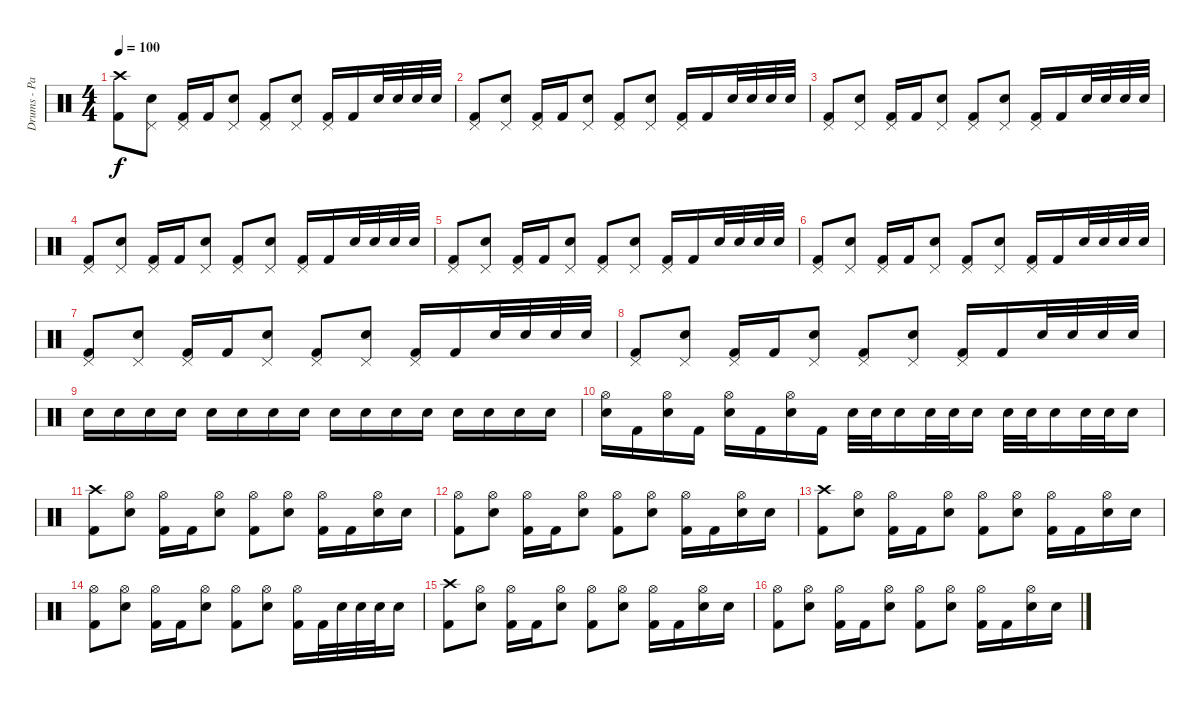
\track ("Drums - Pat Thetic" "Drums - Pa") {instrument percussion}
\staff {score}
\articulation defaults
\ts (4 4)
\tempo 100
\clef neutral
\ks c
("Crash high (hit)" "Kick (hit) 2").8{dy f} ("Pedal Hi-Hat (hit)" "Electric Snare (hit)").8 ("Pedal Hi-Hat (hit)" "Kick (hit) 2").16 "Kick (hit) 2".16 ("Pedal Hi-Hat (hit)" "Electric Snare (hit)").8 ("Pedal Hi-Hat (hit)" "Kick (hit) 2").8 ("Pedal Hi-Hat (hit)" "Electric Snare (hit)").8 ("Pedal Hi-Hat (hit)" "Kick (hit) 2").16 "Kick (hit) 2".16 "Electric Snare (hit)".32 "Electric Snare (hit)".32 "Electric Snare (hit)".32 "Electric Snare (hit)".32 |
("Pedal Hi-Hat (hit)" "Kick (hit) 2").8 ("Pedal Hi-Hat (hit)" "Electric Snare (hit)").8 ("Pedal Hi-Hat (hit)" "Kick (hit) 2").16 "Kick (hit) 2".16 ("Pedal Hi-Hat (hit)" "Electric Snare (hit)").8 ("Pedal Hi-Hat (hit)" "Kick (hit) 2").8 ("Pedal Hi-Hat (hit)" "Electric Snare (hit)").8 ("Pedal Hi-Hat (hit)" "Kick (hit) 2").16 "Kick (hit) 2".16 "Electric Snare (hit)".32 "Electric Snare (hit)".32 "Electric Snare (hit)".32 "Electric Snare (hit)".32 |
("Pedal Hi-Hat (hit)" "Kick (hit) 2").8 ("Pedal Hi-Hat (hit)" "Electric Snare (hit)").8 ("Pedal Hi-Hat (hit)" "Kick (hit) 2").16 "Kick (hit) 2".16 ("Pedal Hi-Hat (hit)" "Electric Snare (hit)").8 ("Pedal Hi-Hat (hit)" "Kick (hit) 2").8 ("Pedal Hi-Hat (hit)" "Electric Snare (hit)").8 ("Pedal Hi-Hat (hit)" "Kick (hit) 2").16 "Kick (hit) 2".16 "Electric Snare (hit)".32 "Electric Snare (hit)".32 "Electric Snare (hit)".32 "Electric Snare (hit)".32 |
("Pedal Hi-Hat (hit)" "Kick (hit) 2").8 ("Pedal Hi-Hat (hit)" "Electric Snare (hit)").8 ("Pedal Hi-Hat (hit)" "Kick (hit) 2").16 "Kick (hit) 2".16 ("Pedal Hi-Hat (hit)" "Electric Snare (hit)").8 ("Pedal Hi-Hat (hit)" "Kick (hit) 2").8 ("Pedal Hi-Hat (hit)" "Electric Snare (hit)").8 ("Pedal Hi-Hat (hit)" "Kick (hit) 2").16 "Kick (hit) 2".16 "Electric Snare (hit)".32 "Electric Snare (hit)".32 "Electric Snare (hit)".32 "Electric Snare (hit)".32 |
("Pedal Hi-Hat (hit)" "Kick (hit) 2").8 ("Pedal Hi-Hat (hit)" "Electric Snare (hit)").8 ("Pedal Hi-Hat (hit)" "Kick (hit) 2").16 "Kick (hit) 2".16 ("Pedal Hi-Hat (hit)" "Electric Snare (hit)").8 ("Pedal Hi-Hat (hit)" "Kick (hit) 2").8 ("Pedal Hi-Hat (hit)" "Electric Snare (hit)").8 ("Pedal Hi-Hat (hit)" "Kick (hit) 2").16 "Kick (hit) 2".16 "Electric Snare (hit)".32 "Electric Snare (hit)".32 "Electric Snare (hit)".32 "Electric Snare (hit)".32 |
("Pedal Hi-Hat (hit)" "Kick (hit) 2").8 ("Pedal Hi-Hat (hit)" "Electric Snare (hit)").8 ("Pedal Hi-Hat (hit)" "Kick (hit) 2").16 "Kick (hit) 2".16 ("Pedal Hi-Hat (hit)" "Electric Snare (hit)").8 ("Pedal Hi-Hat (hit)" "Kick (hit) 2").8 ("Pedal Hi-Hat (hit)" "Electric Snare (hit)").8 ("Pedal Hi-Hat (hit)" "Kick (hit) 2").16 "Kick (hit) 2".16 "Electric Snare (hit)".32 "Electric Snare (hit)".32 "Electric Snare (hit)".32 "Electric Snare (hit)".32 |
("Pedal Hi-Hat (hit)" "Kick (hit) 2").8 ("Pedal Hi-Hat (hit)" "Electric Snare (hit)").8 ("Pedal Hi-Hat (hit)" "Kick (hit) 2").16 "Kick (hit) 2".16 ("Pedal Hi-Hat (hit)" "Electric Snare (hit)").8 ("Pedal Hi-Hat (hit)" "Kick (hit) 2").8 ("Pedal Hi-Hat (hit)" "Electric Snare (hit)").8 ("Pedal Hi-Hat (hit)" "Kick (hit) 2").16 "Kick (hit) 2".16 "Electric Snare (hit)".32 "Electric Snare (hit)".32 "Electric Snare (hit)".32 "Electric Snare (hit)".32 |
("Pedal Hi-Hat (hit)" "Kick (hit) 2").8 ("Pedal Hi-Hat (hit)" "Electric Snare (hit)").8 ("Pedal Hi-Hat (hit)" "Kick (hit) 2").16 "Kick (hit) 2".16 ("Pedal Hi-Hat (hit)" "Electric Snare (hit)").8 ("Pedal Hi-Hat (hit)" "Kick (hit) 2").8 ("Pedal Hi-Hat (hit)" "Electric Snare (hit)").8 ("Pedal Hi-Hat (hit)" "Kick (hit) 2").16 "Kick (hit) 2".16 "Electric Snare (hit)".32 "Electric Snare (hit)".32 "Electric Snare (hit)".32 "Electric Snare (hit)".32 |
"Electric Snare (hit)".16 "Electric Snare (hit)".16 "Electric Snare (hit)".16 "Electric Snare (hit)".16 "Electric Snare (hit)".16 "Electric Snare (hit)".16 "Electric Snare (hit)".16 "Electric Snare (hit)".16 "Electric Snare (hit)".16 "Electric Snare (hit)".16 "Electric Snare (hit)".16 "Electric Snare (hit)".16 "Electric Snare (hit)".16 "Electric Snare (hit)".16 "Electric Snare (hit)".16 "Electric Snare (hit)".16 |
("Hi-Hat (open)" "Electric Snare (hit)").16 "Kick (hit) 2".16 ("Hi-Hat (open)" "Electric Snare (hit)").16 "Kick (hit) 2".16 ("Hi-Hat (open)" "Electric Snare (hit)").16 "Kick (hit) 2".16 ("Hi-Hat (open)" "Electric Snare (hit)").16 "Kick (hit) 2".16 "Electric Snare (hit)".32 "Electric Snare (hit)".32 "Electric Snare (hit)".16 "Electric Snare (hit)".32 "Electric Snare (hit)".32 "Electric Snare (hit)".16 "Electric Snare (hit)".32 "Electric Snare (hit)".32 "Electric Snare (hit)".16 "Electric Snare (hit)".32 "Electric Snare (hit)".32 "Electric Snare (hit)".16 |
("Crash high (hit)" "Kick (hit) 2").8 ("Hi-Hat (open)" "Electric Snare (hit)").8 ("Hi-Hat (open)" "Kick (hit) 2").16 "Kick (hit) 2".16 ("Hi-Hat (open)" "Electric Snare (hit)").8 ("Hi-Hat (open)" "Kick (hit) 2").8 ("Hi-Hat (open)" "Electric Snare (hit)").8 ("Hi-Hat (open)" "Kick (hit) 2").16 "Kick (hit) 2".16 ("Hi-Hat (open)" "Electric Snare (hit)").16 "Electric Snare (hit)".16 |
("Hi-Hat (open)" "Kick (hit) 2").8 ("Hi-Hat (open)" "Electric Snare (hit)").8 ("Hi-Hat (open)" "Kick (hit) 2").16 "Kick (hit) 2".16 ("Hi-Hat (open)" "Electric Snare (hit)").8 ("Hi-Hat (open)" "Kick (hit) 2").8 ("Hi-Hat (open)" "Electric Snare (hit)").8 ("Hi-Hat (open)" "Kick (hit) 2").16 "Kick (hit) 2".16 ("Hi-Hat (open)" "Electric Snare (hit)").16 "Electric Snare (hit)".16 |
("Crash high (hit)" "Kick (hit) 2").8 ("Hi-Hat (open)" "Electric Snare (hit)").8 ("Hi-Hat (open)" "Kick (hit) 2").16 "Kick (hit) 2".16 ("Hi-Hat (open)" "Electric Snare (hit)").8 ("Hi-Hat (open)" "Kick (hit) 2").8 ("Hi-Hat (open)" "Electric Snare (hit)").8 ("Hi-Hat (open)" "Kick (hit) 2").16 "Kick (hit) 2".16 ("Hi-Hat (open)" "Electric Snare (hit)").16 "Electric Snare (hit)".16 |
("Hi-Hat (open)" "Kick (hit) 2").8 ("Hi-Hat (open)" "Electric Snare (hit)").8 ("Hi-Hat (open)" "Kick (hit) 2").16 "Kick (hit) 2".16 ("Hi-Hat (open)" "Electric Snare (hit)").8 ("Hi-Hat (open)" "Kick (hit) 2").8 ("Hi-Hat (open)" "Electric Snare (hit)").8 ("Hi-Hat (open)" "Kick (hit) 2").16 "Kick (hit) 2".32 "Electric Snare (hit)".32 "Electric Snare (hit)".32 "Electric Snare (hit)".32 "Electric Snare (hit)".16 |
("Crash high (hit)" "Kick (hit) 2").8 ("Hi-Hat (open)" "Electric Snare (hit)").8 ("Hi-Hat (open)" "Kick (hit) 2").16 "Kick (hit) 2".16 ("Hi-Hat (open)" "Electric Snare (hit)").8 ("Hi-Hat (open)" "Kick (hit) 2").8 ("Hi-Hat (open)" "Electric Snare (hit)").8 ("Hi-Hat (open)" "Kick (hit) 2").16 "Kick (hit) 2".16 ("Hi-Hat (open)" "Electric Snare (hit)").16 "Electric Snare (hit)".16 |
("Hi-Hat (open)" "Kick (hit) 2").8 ("Hi-Hat (open)" "Electric Snare (hit)").8 ("Hi-Hat (open)" "Kick (hit) 2").16 "Kick (hit) 2".16 ("Hi-Hat (open)" "Electric Snare (hit)").8 ("Hi-Hat (open)" "Kick (hit) 2").8 ("Hi-Hat (open)" "Electric Snare (hit)").8 ("Hi-Hat (open)" "Kick (hit) 2").16 "Kick (hit) 2".16 ("Hi-Hat (open)" "Electric Snare (hit)").16 "Electric Snare (hit)".16
